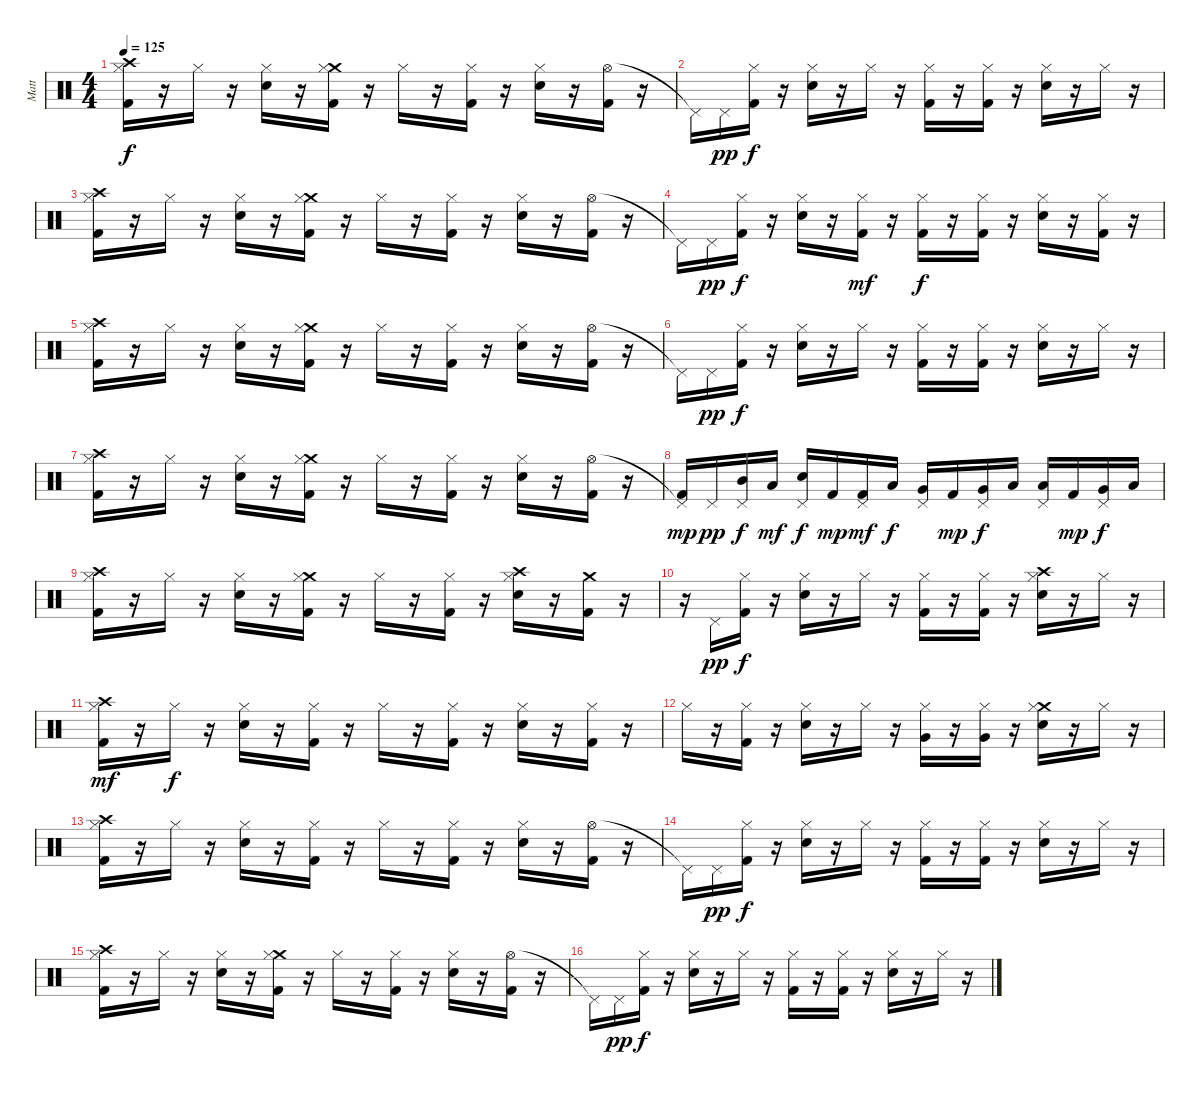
\track ("Matt" "Matt") {instrument percussion}
\staff {score}
\articulation defaults
\ts (4 4)
\tempo 125
\clef neutral
\ks c
("Crash high (hit)" "Hi-Hat (closed)" "Kick (hit) 2").16{dy f} r.16 "Hi-Hat (closed)".16 r.16 ("Hi-Hat (closed)" "Electric Snare (hit)").16 r.16 ("Crash medium (hit)" "Hi-Hat (closed)" "Kick (hit) 2").16 r.16 "Hi-Hat (closed)".16 r.16 ("Hi-Hat (closed)" "Kick (hit) 2").16 r.16 ("Hi-Hat (closed)" "Electric Snare (hit)").16 r.16 ("Hi-Hat (open)" "Kick (hit) 2").16 r.16 |
"Pedal Hi-Hat (hit)"{t}.16 "Pedal Hi-Hat (hit)".16{dy pp} ("Hi-Hat (closed)" "Kick (hit) 2").16{dy f} r.16 ("Hi-Hat (closed)" "Electric Snare (hit)").16 r.16 "Hi-Hat (closed)".16 r.16 ("Hi-Hat (closed)" "Kick (hit) 2").16 r.16 ("Hi-Hat (closed)" "Kick (hit) 2").16 r.16 ("Hi-Hat (closed)" "Electric Snare (hit)").16 r.16 "Hi-Hat (closed)".16 r.16 |
("Crash high (hit)" "Hi-Hat (closed)" "Kick (hit) 2").16 r.16 "Hi-Hat (closed)".16 r.16 ("Hi-Hat (closed)" "Electric Snare (hit)").16 r.16 ("Crash medium (hit)" "Hi-Hat (closed)" "Kick (hit) 2").16 r.16 "Hi-Hat (closed)".16 r.16 ("Hi-Hat (closed)" "Kick (hit) 2").16 r.16 ("Hi-Hat (closed)" "Electric Snare (hit)").16 r.16 ("Hi-Hat (open)" "Kick (hit) 2").16 r.16 |
"Pedal Hi-Hat (hit)"{t}.16 "Pedal Hi-Hat (hit)".16{dy pp} ("Hi-Hat (closed)" "Kick (hit) 2").16{dy f} r.16 ("Hi-Hat (closed)" "Electric Snare (hit)").16 r.16 ("Hi-Hat (closed)" "Kick (hit) 2").16{dy mf} r.16 ("Hi-Hat (closed)" "Kick (hit) 2").16{dy f} r.16 ("Hi-Hat (closed)" "Kick (hit) 2").16 r.16 ("Hi-Hat (closed)" "Electric Snare (hit)").16 r.16 ("Hi-Hat (closed)" "Kick (hit) 2").16 r.16 |
("Crash high (hit)" "Hi-Hat (closed)" "Kick (hit) 2").16 r.16 "Hi-Hat (closed)".16 r.16 ("Hi-Hat (closed)" "Electric Snare (hit)").16 r.16 ("Crash medium (hit)" "Hi-Hat (closed)" "Kick (hit) 2").16 r.16 "Hi-Hat (closed)".16 r.16 ("Hi-Hat (closed)" "Kick (hit) 2").16 r.16 ("Hi-Hat (closed)" "Electric Snare (hit)").16 r.16 ("Hi-Hat (open)" "Kick (hit) 2").16 r.16 |
"Pedal Hi-Hat (hit)"{t}.16 "Pedal Hi-Hat (hit)".16{dy pp} ("Hi-Hat (closed)" "Kick (hit) 2").16{dy f} r.16 ("Hi-Hat (closed)" "Electric Snare (hit)").16 r.16 "Hi-Hat (closed)".16 r.16 ("Hi-Hat (closed)" "Kick (hit) 2").16 r.16 ("Hi-Hat (closed)" "Kick (hit) 2").16 r.16 ("Hi-Hat (closed)" "Electric Snare (hit)").16 r.16 "Hi-Hat (closed)".16 r.16 |
("Crash high (hit)" "Hi-Hat (closed)" "Kick (hit) 2").16 r.16 "Hi-Hat (closed)".16 r.16 ("Hi-Hat (closed)" "Electric Snare (hit)").16 r.16 ("Crash medium (hit)" "Hi-Hat (closed)" "Kick (hit) 2").16 r.16 "Hi-Hat (closed)".16 r.16 ("Hi-Hat (closed)" "Kick (hit) 2").16 r.16 ("Hi-Hat (closed)" "Electric Snare (hit)").16 r.16 ("Hi-Hat (open)" "Kick (hit) 2").16 r.16 |
("Pedal Hi-Hat (hit)"{t} "Kick (hit) 2").16{dy mp} "Pedal Hi-Hat (hit)".16{dy pp} ("Pedal Hi-Hat (hit)" "Mid Tom (hit)").16{dy f} "Low Tom (hit)".16{dy mf} ("Pedal Hi-Hat (hit)" "Electric Snare (hit)").16{dy f} "Kick (hit) 2".16{dy mp} ("Pedal Hi-Hat (hit)" "Kick (hit) 2").16{dy mf} "Low Tom (hit)".16{dy f} ("Pedal Hi-Hat (hit)" "Very Low Tom (hit)").16 "Kick (hit) 2".16{dy mp} ("Pedal Hi-Hat (hit)" "Very Low Tom (hit)").16{dy f} "Low Floor Tom (hit)".16 ("Pedal Hi-Hat (hit)" "Low Floor Tom (hit)").16 "Kick (hit) 2".16{dy mp} ("Pedal Hi-Hat (hit)" "Very Low Tom (hit)").16{dy f} "Low Floor Tom (hit)".16 |
("Crash high (hit)" "Hi-Hat (closed)" "Kick (hit) 2").16 r.16 "Hi-Hat (closed)".16 r.16 ("Hi-Hat (closed)" "Electric Snare (hit)").16 r.16 ("Crash medium (hit)" "Hi-Hat (closed)" "Kick (hit) 2").16 r.16 "Hi-Hat (closed)".16 r.16 ("Hi-Hat (closed)" "Kick (hit) 2").16 r.16 ("Crash high (hit)" "Hi-Hat (closed)" "Electric Snare (hit)").16 r.16 ("Crash medium (hit)" "Kick (hit) 2").16 r.16 |
r.16 "Pedal Hi-Hat (hit)".16{dy pp} ("Hi-Hat (closed)" "Kick (hit) 2").16{dy f} r.16 ("Hi-Hat (closed)" "Electric Snare (hit)").16 r.16 "Hi-Hat (closed)".16 r.16 ("Hi-Hat (closed)" "Kick (hit) 2").16 r.16 ("Hi-Hat (closed)" "Kick (hit) 2").16 r.16 ("Crash high (hit)" "Hi-Hat (closed)" "Electric Snare (hit)").16 r.16 "Hi-Hat (closed)".16 r.16 |
("Crash high (hit)" "Hi-Hat (closed)" "Kick (hit) 2").16{dy mf} r.16 "Hi-Hat (closed)".16{dy f} r.16 ("Hi-Hat (closed)" "Electric Snare (hit)").16 r.16 ("Hi-Hat (closed)" "Kick (hit) 2").16 r.16 "Hi-Hat (closed)".16 r.16 ("Hi-Hat (closed)" "Kick (hit) 2").16 r.16 ("Hi-Hat (closed)" "Electric Snare (hit)").16 r.16 ("Hi-Hat (closed)" "Kick (hit) 2").16 r.16 |
"Hi-Hat (closed)".16 r.16 ("Hi-Hat (closed)" "Kick (hit) 2").16 r.16 ("Hi-Hat (closed)" "Electric Snare (hit)").16 r.16 "Hi-Hat (closed)".16 r.16 ("Hi-Hat (closed)" "Very Low Tom (hit)").16 r.16 ("Hi-Hat (closed)" "Very Low Tom (hit)").16 r.16 ("Crash medium (hit)" "Hi-Hat (closed)" "Electric Snare (hit)").16 r.16 "Hi-Hat (closed)".16 r.16 |
("Crash high (hit)" "Hi-Hat (closed)" "Kick (hit) 2").16 r.16 "Hi-Hat (closed)".16 r.16 ("Hi-Hat (closed)" "Electric Snare (hit)").16 r.16 ("Hi-Hat (closed)" "Kick (hit) 2").16 r.16 "Hi-Hat (closed)".16 r.16 ("Hi-Hat (closed)" "Kick (hit) 2").16 r.16 ("Hi-Hat (closed)" "Electric Snare (hit)").16 r.16 ("Hi-Hat (open)" "Kick (hit) 2").16 r.16 |
"Pedal Hi-Hat (hit)"{t}.16 "Pedal Hi-Hat (hit)".16{dy pp} ("Hi-Hat (closed)" "Kick (hit) 2").16{dy f} r.16 ("Hi-Hat (closed)" "Electric Snare (hit)").16 r.16 "Hi-Hat (closed)".16 r.16 ("Hi-Hat (closed)" "Kick (hit) 2").16 r.16 ("Hi-Hat (closed)" "Kick (hit) 2").16 r.16 ("Hi-Hat (closed)" "Electric Snare (hit)").16 r.16 "Hi-Hat (closed)".16 r.16 |
("Crash high (hit)" "Hi-Hat (closed)" "Kick (hit) 2").16 r.16 "Hi-Hat (closed)".16 r.16 ("Hi-Hat (closed)" "Electric Snare (hit)").16 r.16 ("Crash medium (hit)" "Hi-Hat (closed)" "Kick (hit) 2").16 r.16 "Hi-Hat (closed)".16 r.16 ("Hi-Hat (closed)" "Kick (hit) 2").16 r.16 ("Hi-Hat (closed)" "Electric Snare (hit)").16 r.16 ("Hi-Hat (open)" "Kick (hit) 2").16 r.16 |
"Pedal Hi-Hat (hit)"{t}.16 "Pedal Hi-Hat (hit)".16{dy pp} ("Hi-Hat (closed)" "Kick (hit) 2").16{dy f} r.16 ("Hi-Hat (closed)" "Electric Snare (hit)").16 r.16 "Hi-Hat (closed)".16 r.16 ("Hi-Hat (closed)" "Kick (hit) 2").16 r.16 ("Hi-Hat (closed)" "Kick (hit) 2").16 r.16 ("Hi-Hat (closed)" "Electric Snare (hit)").16 r.16 "Hi-Hat (closed)".16 r.16
